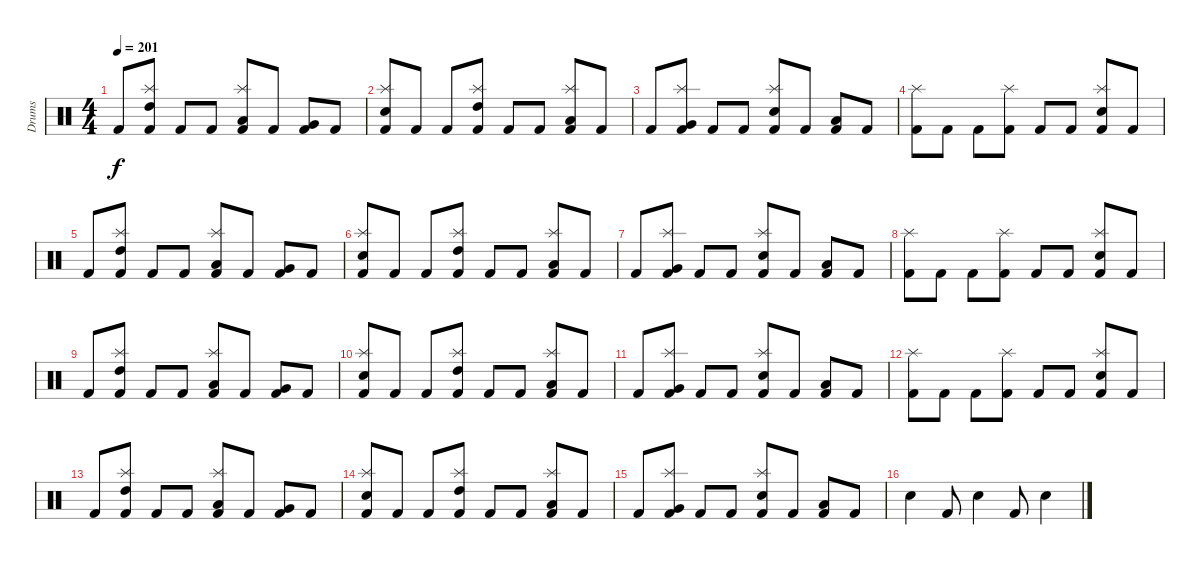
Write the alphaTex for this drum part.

\track ("Drums" "Drums") {instrument percussion}
\staff {score}
\articulation defaults
\ts (4 4)
\tempo 201
\clef neutral
\ks c "Kick (hit) 2".8{dy f}
("Splash (hit)" "High Tom (hit)" "Kick (hit) 2").8 "Kick (hit) 2".8 "Kick (hit) 2".8 ("Splash (hit)" "Low Tom (hit)" "Kick (hit) 2").8 "Kick (hit) 2".8 ("Very Low Tom (hit)" "Kick (hit) 2").8 "Kick (hit) 2".8 |
("Splash (hit)" "Snare (hit) 2" "Kick (hit) 2").8 "Kick (hit) 2".8 "Kick (hit) 2".8 ("Splash (hit)" "High Tom (hit)" "Kick (hit) 2").8 "Kick (hit) 2".8 "Kick (hit) 2".8 ("Splash (hit)" "Low Tom (hit)" "Kick (hit) 2").8 "Kick (hit) 2".8 |
"Kick (hit) 2".8 ("Splash (hit)" "Very Low Tom (hit)" "Kick (hit) 2").8 "Kick (hit) 2".8 "Kick (hit) 2".8 ("Splash (hit)" "Snare (hit) 2" "Kick (hit) 2").8 "Kick (hit) 2".8 ("Low Tom (hit)" "Kick (hit) 2").8 "Kick (hit) 2".8 |
("Splash (hit)" "Kick (hit) 2").8 "Kick (hit) 2".8 "Kick (hit) 2".8 ("Splash (hit)" "Kick (hit) 2").8 "Kick (hit) 2".8 "Kick (hit) 2".8 ("Splash (hit)" "Snare (hit) 2" "Kick (hit) 2").8 "Kick (hit) 2".8 |
"Kick (hit) 2".8 ("Splash (hit)" "High Tom (hit)" "Kick (hit) 2").8 "Kick (hit) 2".8 "Kick (hit) 2".8 ("Splash (hit)" "Low Tom (hit)" "Kick (hit) 2").8 "Kick (hit) 2".8 ("Very Low Tom (hit)" "Kick (hit) 2").8 "Kick (hit) 2".8 |
("Splash (hit)" "Snare (hit) 2" "Kick (hit) 2").8 "Kick (hit) 2".8 "Kick (hit) 2".8 ("Splash (hit)" "High Tom (hit)" "Kick (hit) 2").8 "Kick (hit) 2".8 "Kick (hit) 2".8 ("Splash (hit)" "Low Tom (hit)" "Kick (hit) 2").8 "Kick (hit) 2".8 |
"Kick (hit) 2".8 ("Splash (hit)" "Very Low Tom (hit)" "Kick (hit) 2").8 "Kick (hit) 2".8 "Kick (hit) 2".8 ("Splash (hit)" "Snare (hit) 2" "Kick (hit) 2").8 "Kick (hit) 2".8 ("Low Tom (hit)" "Kick (hit) 2").8 "Kick (hit) 2".8 |
("Splash (hit)" "Kick (hit) 2").8 "Kick (hit) 2".8 "Kick (hit) 2".8 ("Splash (hit)" "Kick (hit) 2").8 "Kick (hit) 2".8 "Kick (hit) 2".8 ("Splash (hit)" "Snare (hit) 2" "Kick (hit) 2").8 "Kick (hit) 2".8 |
"Kick (hit) 2".8 ("Splash (hit)" "High Tom (hit)" "Kick (hit) 2").8 "Kick (hit) 2".8 "Kick (hit) 2".8 ("Splash (hit)" "Low Tom (hit)" "Kick (hit) 2").8 "Kick (hit) 2".8 ("Very Low Tom (hit)" "Kick (hit) 2").8 "Kick (hit) 2".8 |
("Splash (hit)" "Snare (hit) 2" "Kick (hit) 2").8 "Kick (hit) 2".8 "Kick (hit) 2".8 ("Splash (hit)" "High Tom (hit)" "Kick (hit) 2").8 "Kick (hit) 2".8 "Kick (hit) 2".8 ("Splash (hit)" "Low Tom (hit)" "Kick (hit) 2").8 "Kick (hit) 2".8 |
"Kick (hit) 2".8 ("Splash (hit)" "Very Low Tom (hit)" "Kick (hit) 2").8 "Kick (hit) 2".8 "Kick (hit) 2".8 ("Splash (hit)" "Snare (hit) 2" "Kick (hit) 2").8 "Kick (hit) 2".8 ("Low Tom (hit)" "Kick (hit) 2").8 "Kick (hit) 2".8 |
("Splash (hit)" "Kick (hit) 2").8 "Kick (hit) 2".8 "Kick (hit) 2".8 ("Splash (hit)" "Kick (hit) 2").8 "Kick (hit) 2".8 "Kick (hit) 2".8 ("Splash (hit)" "Snare (hit) 2" "Kick (hit) 2").8 "Kick (hit) 2".8 |
"Kick (hit) 2".8 ("Splash (hit)" "High Tom (hit)" "Kick (hit) 2").8 "Kick (hit) 2".8 "Kick (hit) 2".8 ("Splash (hit)" "Low Tom (hit)" "Kick (hit) 2").8 "Kick (hit) 2".8 ("Very Low Tom (hit)" "Kick (hit) 2").8 "Kick (hit) 2".8 |
("Splash (hit)" "Snare (hit) 2" "Kick (hit) 2").8 "Kick (hit) 2".8 "Kick (hit) 2".8 ("Splash (hit)" "High Tom (hit)" "Kick (hit) 2").8 "Kick (hit) 2".8 "Kick (hit) 2".8 ("Splash (hit)" "Low Tom (hit)" "Kick (hit) 2").8 "Kick (hit) 2".8 |
"Kick (hit) 2".8 ("Splash (hit)" "Very Low Tom (hit)" "Kick (hit) 2").8 "Kick (hit) 2".8 "Kick (hit) 2".8 ("Splash (hit)" "Snare (hit) 2" "Kick (hit) 2").8 "Kick (hit) 2".8 ("Low Tom (hit)" "Kick (hit) 2").8 "Kick (hit) 2".8 |
"Snare (hit) 2".4 "Kick (hit) 2".8 "Snare (hit) 2".4 "Kick (hit) 2".8 "Snare (hit) 2".4
